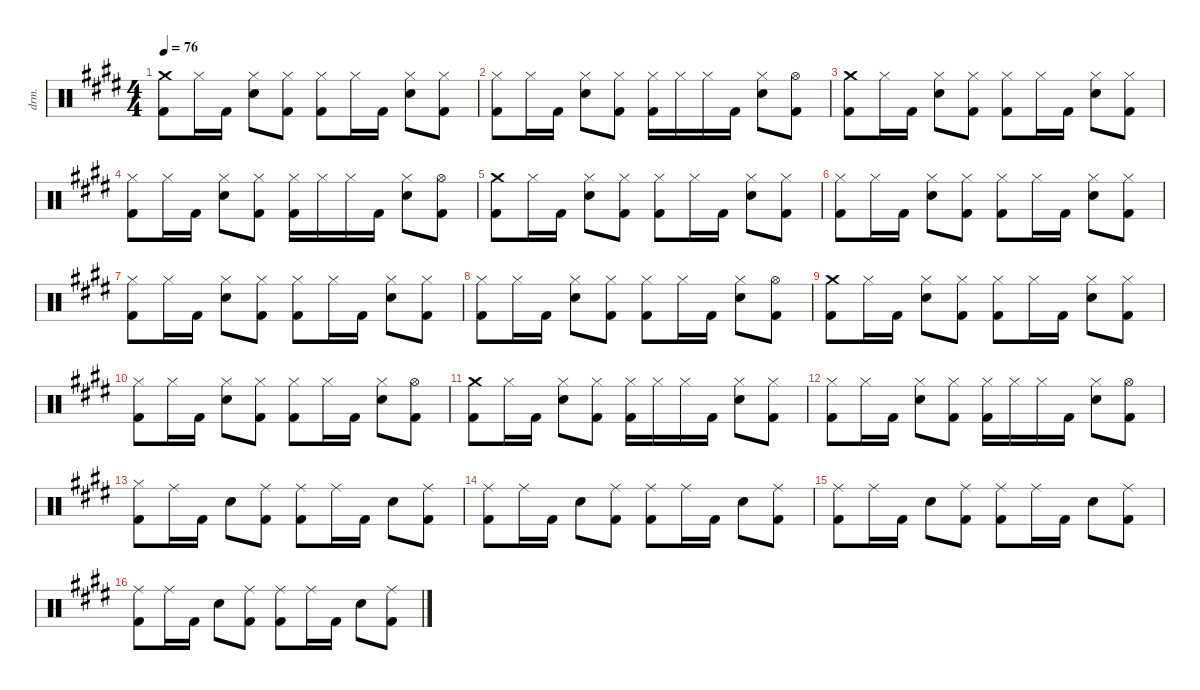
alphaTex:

\defaultSystemsLayout 4
\hideDynamics
\bracketExtendMode nobrackets
\otherSystemsTrackNameOrientation horizontal
\track ("Drums" "drm.") {instrument percussion}
\staff {score}
\articulation defaults
\ts (4 4)
\tempo 76
\clef neutral
\ks e
("Crash medium (hit)"{acc forcenatural} "Kick (hit) 2"{acc forcenatural}).8{dy f beam Down} "Hi-Hat (closed)"{acc forcenatural}.16{beam Down} "Kick (hit) 2"{acc forcenatural}.16{beam Down} ("Hi-Hat (closed)"{acc forcenatural} "Snare (hit) 2"{acc forcenatural}).8{dy mf beam Down} ("Hi-Hat (closed)"{acc forcenatural} "Kick (hit) 2"{acc forcenatural}).8{dy f beam Down} ("Hi-Hat (closed)"{acc forcenatural} "Kick (hit) 2"{acc forcenatural}).8{beam Down} "Hi-Hat (closed)"{acc forcenatural}.16{beam Down} "Kick (hit) 2"{acc forcenatural}.16{beam Down} ("Hi-Hat (closed)"{acc forcenatural} "Snare (hit) 2"{acc forcenatural}).8{dy mf beam Down} ("Hi-Hat (closed)"{acc forcenatural} "Kick (hit) 2"{acc forcenatural}).8{dy f beam Down} |
("Hi-Hat (closed)"{acc forcenatural} "Kick (hit) 2"{acc forcenatural}).8{beam Down} "Hi-Hat (closed)"{acc forcenatural}.16{beam Down} "Kick (hit) 2"{acc forcenatural}.16{beam Down} ("Hi-Hat (closed)"{acc forcenatural} "Snare (hit) 2"{acc forcenatural}).8{dy mf beam Down} ("Hi-Hat (closed)"{acc forcenatural} "Kick (hit) 2"{acc forcenatural}).8{dy f beam Down} ("Hi-Hat (closed)"{acc forcenatural} "Kick (hit) 2"{acc forcenatural}).16{beam Down} "Hi-Hat (closed)"{acc forcenatural}.16{dy mf beam Down} "Hi-Hat (closed)"{acc forcenatural}.16{dy f beam Down} "Kick (hit) 2"{acc forcenatural}.16{beam Down} ("Hi-Hat (closed)"{acc forcenatural} "Snare (hit) 2"{acc forcenatural}).8{dy mf beam Down} ("Hi-Hat (open)"{acc forcenatural} "Kick (hit) 2"{acc forcenatural}).8{dy f beam Down} |
("Crash medium (hit)"{acc forcenatural} "Kick (hit) 2"{acc forcenatural}).8{beam Down} "Hi-Hat (closed)"{acc forcenatural}.16{beam Down} "Kick (hit) 2"{acc forcenatural}.16{beam Down} ("Hi-Hat (closed)"{acc forcenatural} "Snare (hit) 2"{acc forcenatural}).8{dy mf beam Down} ("Hi-Hat (closed)"{acc forcenatural} "Kick (hit) 2"{acc forcenatural}).8{dy f beam Down} ("Hi-Hat (closed)"{acc forcenatural} "Kick (hit) 2"{acc forcenatural}).8{beam Down} "Hi-Hat (closed)"{acc forcenatural}.16{beam Down} "Kick (hit) 2"{acc forcenatural}.16{beam Down} ("Hi-Hat (closed)"{acc forcenatural} "Snare (hit) 2"{acc forcenatural}).8{dy mf beam Down} ("Hi-Hat (closed)"{acc forcenatural} "Kick (hit) 2"{acc forcenatural}).8{dy f beam Down} |
("Hi-Hat (closed)"{acc forcenatural} "Kick (hit) 2"{acc forcenatural}).8{beam Down} "Hi-Hat (closed)"{acc forcenatural}.16{beam Down} "Kick (hit) 2"{acc forcenatural}.16{beam Down} ("Hi-Hat (closed)"{acc forcenatural} "Snare (hit) 2"{acc forcenatural}).8{dy mf beam Down} ("Hi-Hat (closed)"{acc forcenatural} "Kick (hit) 2"{acc forcenatural}).8{dy f beam Down} ("Hi-Hat (closed)"{acc forcenatural} "Kick (hit) 2"{acc forcenatural}).16{beam Down} "Hi-Hat (closed)"{acc forcenatural}.16{dy mf beam Down} "Hi-Hat (closed)"{acc forcenatural}.16{dy f beam Down} "Kick (hit) 2"{acc forcenatural}.16{beam Down} ("Hi-Hat (closed)"{acc forcenatural} "Snare (hit) 2"{acc forcenatural}).8{dy mf beam Down} ("Hi-Hat (open)"{acc forcenatural} "Kick (hit) 2"{acc forcenatural}).8{dy f beam Down} |
("Crash medium (hit)"{acc forcenatural} "Kick (hit) 2"{acc forcenatural}).8{beam Down} "Hi-Hat (closed)"{acc forcenatural}.16{beam Down} "Kick (hit) 2"{acc forcenatural}.16{beam Down} ("Hi-Hat (closed)"{acc forcenatural} "Snare (hit) 2"{acc forcenatural}).8{dy mf beam Down} ("Hi-Hat (closed)"{acc forcenatural} "Kick (hit) 2"{acc forcenatural}).8{dy f beam Down} ("Hi-Hat (closed)"{acc forcenatural} "Kick (hit) 2"{acc forcenatural}).8{beam Down} "Hi-Hat (closed)"{acc forcenatural}.16{beam Down} "Kick (hit) 2"{acc forcenatural}.16{beam Down} ("Hi-Hat (closed)"{acc forcenatural} "Snare (hit) 2"{acc forcenatural}).8{dy mf beam Down} ("Hi-Hat (closed)"{acc forcenatural} "Kick (hit) 2"{acc forcenatural}).8{dy f beam Down} |
("Hi-Hat (closed)"{acc forcenatural} "Kick (hit) 2"{acc forcenatural}).8{beam Down} "Hi-Hat (closed)"{acc forcenatural}.16{beam Down} "Kick (hit) 2"{acc forcenatural}.16{beam Down} ("Hi-Hat (closed)"{acc forcenatural} "Snare (hit) 2"{acc forcenatural}).8{dy mf beam Down} ("Hi-Hat (closed)"{acc forcenatural} "Kick (hit) 2"{acc forcenatural}).8{dy f beam Down} ("Hi-Hat (closed)"{acc forcenatural} "Kick (hit) 2"{acc forcenatural}).8{beam Down} "Hi-Hat (closed)"{acc forcenatural}.16{beam Down} "Kick (hit) 2"{acc forcenatural}.16{beam Down} ("Hi-Hat (closed)"{acc forcenatural} "Snare (hit) 2"{acc forcenatural}).8{dy mf beam Down} ("Hi-Hat (closed)"{acc forcenatural} "Kick (hit) 2"{acc forcenatural}).8{dy f beam Down} |
("Hi-Hat (closed)"{acc forcenatural} "Kick (hit) 2"{acc forcenatural}).8{beam Down} "Hi-Hat (closed)"{acc forcenatural}.16{beam Down} "Kick (hit) 2"{acc forcenatural}.16{beam Down} ("Hi-Hat (closed)"{acc forcenatural} "Snare (hit) 2"{acc forcenatural}).8{dy mf beam Down} ("Hi-Hat (closed)"{acc forcenatural} "Kick (hit) 2"{acc forcenatural}).8{dy f beam Down} ("Hi-Hat (closed)"{acc forcenatural} "Kick (hit) 2"{acc forcenatural}).8{beam Down} "Hi-Hat (closed)"{acc forcenatural}.16{beam Down} "Kick (hit) 2"{acc forcenatural}.16{beam Down} ("Hi-Hat (closed)"{acc forcenatural} "Snare (hit) 2"{acc forcenatural}).8{dy mf beam Down} ("Hi-Hat (closed)"{acc forcenatural} "Kick (hit) 2"{acc forcenatural}).8{dy f beam Down} |
("Hi-Hat (closed)"{acc forcenatural} "Kick (hit) 2"{acc forcenatural}).8{beam Down} "Hi-Hat (closed)"{acc forcenatural}.16{beam Down} "Kick (hit) 2"{acc forcenatural}.16{beam Down} ("Hi-Hat (closed)"{acc forcenatural} "Snare (hit) 2"{acc forcenatural}).8{dy mf beam Down} ("Hi-Hat (closed)"{acc forcenatural} "Kick (hit) 2"{acc forcenatural}).8{dy f beam Down} ("Hi-Hat (closed)"{acc forcenatural} "Kick (hit) 2"{acc forcenatural}).8{beam Down} "Hi-Hat (closed)"{acc forcenatural}.16{beam Down} "Kick (hit) 2"{acc forcenatural}.16{beam Down} ("Hi-Hat (closed)"{acc forcenatural} "Snare (hit) 2"{acc forcenatural}).8{dy mf beam Down} ("Hi-Hat (open)"{acc forcenatural} "Kick (hit) 2"{acc forcenatural}).8{dy f beam Down} |
("Crash medium (hit)"{acc forcenatural} "Kick (hit) 2"{acc forcenatural}).8{beam Down} "Hi-Hat (closed)"{acc forcenatural}.16{beam Down} "Kick (hit) 2"{acc forcenatural}.16{beam Down} ("Hi-Hat (closed)"{acc forcenatural} "Snare (hit) 2"{acc forcenatural}).8{dy mf beam Down} ("Hi-Hat (closed)"{acc forcenatural} "Kick (hit) 2"{acc forcenatural}).8{dy f beam Down} ("Hi-Hat (closed)"{acc forcenatural} "Kick (hit) 2"{acc forcenatural}).8{beam Down} "Hi-Hat (closed)"{acc forcenatural}.16{beam Down} "Kick (hit) 2"{acc forcenatural}.16{beam Down} ("Hi-Hat (closed)"{acc forcenatural} "Snare (hit) 2"{acc forcenatural}).8{dy mf beam Down} ("Hi-Hat (closed)"{acc forcenatural} "Kick (hit) 2"{acc forcenatural}).8{dy f beam Down} |
("Hi-Hat (closed)"{acc forcenatural} "Kick (hit) 2"{acc forcenatural}).8{beam Down} "Hi-Hat (closed)"{acc forcenatural}.16{beam Down} "Kick (hit) 2"{acc forcenatural}.16{beam Down} ("Hi-Hat (closed)"{acc forcenatural} "Snare (hit) 2"{acc forcenatural}).8{dy mf beam Down} ("Hi-Hat (closed)"{acc forcenatural} "Kick (hit) 2"{acc forcenatural}).8{dy f beam Down} ("Hi-Hat (closed)"{acc forcenatural} "Kick (hit) 2"{acc forcenatural}).8{beam Down} "Hi-Hat (closed)"{acc forcenatural}.16{beam Down} "Kick (hit) 2"{acc forcenatural}.16{beam Down} ("Hi-Hat (closed)"{acc forcenatural} "Snare (hit) 2"{acc forcenatural}).8{dy mf beam Down} ("Hi-Hat (open)"{acc forcenatural} "Kick (hit) 2"{acc forcenatural}).8{dy f beam Down} |
("Crash medium (hit)"{acc forcenatural} "Kick (hit) 2"{acc forcenatural}).8{beam Down} "Hi-Hat (closed)"{acc forcenatural}.16{beam Down} "Kick (hit) 2"{acc forcenatural}.16{beam Down} ("Hi-Hat (closed)"{acc forcenatural} "Snare (hit) 2"{acc forcenatural}).8{dy mf beam Down} ("Hi-Hat (closed)"{acc forcenatural} "Kick (hit) 2"{acc forcenatural}).8{dy f beam Down} ("Hi-Hat (closed)"{acc forcenatural} "Kick (hit) 2"{acc forcenatural}).16{beam Down} "Hi-Hat (closed)"{acc forcenatural}.16{dy mf beam Down} "Hi-Hat (closed)"{acc forcenatural}.16{dy f beam Down} "Kick (hit) 2"{acc forcenatural}.16{beam Down} ("Hi-Hat (closed)"{acc forcenatural} "Snare (hit) 2"{acc forcenatural}).8{dy mf beam Down} ("Hi-Hat (closed)"{acc forcenatural} "Kick (hit) 2"{acc forcenatural}).8{dy f beam Down} |
("Hi-Hat (closed)"{acc forcenatural} "Kick (hit) 2"{acc forcenatural}).8{beam Down} "Hi-Hat (closed)"{acc forcenatural}.16{beam Down} "Kick (hit) 2"{acc forcenatural}.16{beam Down} ("Hi-Hat (closed)"{acc forcenatural} "Snare (hit) 2"{acc forcenatural}).8{dy mf beam Down} ("Hi-Hat (closed)"{acc forcenatural} "Kick (hit) 2"{acc forcenatural}).8{dy f beam Down} ("Hi-Hat (closed)"{acc forcenatural} "Kick (hit) 2"{acc forcenatural}).16{beam Down} "Hi-Hat (closed)"{acc forcenatural}.16{beam Down} "Hi-Hat (closed)"{acc forcenatural}.16{beam Down} "Kick (hit) 2"{acc forcenatural}.16{beam Down} ("Hi-Hat (closed)"{acc forcenatural} "Snare (hit) 2"{acc forcenatural}).8{dy mf beam Down} ("Hi-Hat (open)"{acc forcenatural} "Kick (hit) 2"{acc forcenatural}).8{dy f beam Down} |
("Hi-Hat (closed)"{acc forcenatural} "Kick (hit) 2"{acc forcenatural}).8{beam Down} "Ride (middle)"{acc forcenatural}.16{beam Down} "Kick (hit) 2"{acc forcenatural}.16{beam Down} "Snare (hit) 2"{acc forcenatural}.8{beam Down} ("Ride (middle)"{acc forcenatural} "Kick (hit) 2"{acc forcenatural}).8{beam Down} ("Ride (middle)"{acc forcenatural} "Kick (hit) 2"{acc forcenatural}).8{beam Down} "Ride (middle)"{acc forcenatural}.16{beam Down} "Kick (hit) 2"{acc forcenatural}.16{beam Down} "Snare (hit) 2"{acc forcenatural}.8{beam Down} ("Ride (middle)"{acc forcenatural} "Kick (hit) 2"{acc forcenatural}).8{beam Down} |
("Ride (middle)"{acc forcenatural} "Kick (hit) 2"{acc forcenatural}).8{beam Down} "Ride (middle)"{acc forcenatural}.16{beam Down} "Kick (hit) 2"{acc forcenatural}.16{beam Down} "Snare (hit) 2"{acc forcenatural}.8{beam Down} ("Ride (middle)"{acc forcenatural} "Kick (hit) 2"{acc forcenatural}).8{beam Down} ("Ride (middle)"{acc forcenatural} "Kick (hit) 2"{acc forcenatural}).8{beam Down} "Ride (middle)"{acc forcenatural}.16{beam Down} "Kick (hit) 2"{acc forcenatural}.16{beam Down} "Snare (hit) 2"{acc forcenatural}.8{beam Down} ("Ride (middle)"{acc forcenatural} "Kick (hit) 2"{acc forcenatural}).8{beam Down} |
("Ride (middle)"{acc forcenatural} "Kick (hit) 2"{acc forcenatural}).8{beam Down} "Ride (middle)"{acc forcenatural}.16{beam Down} "Kick (hit) 2"{acc forcenatural}.16{beam Down} "Snare (hit) 2"{acc forcenatural}.8{beam Down} ("Ride (middle)"{acc forcenatural} "Kick (hit) 2"{acc forcenatural}).8{beam Down} ("Ride (middle)"{acc forcenatural} "Kick (hit) 2"{acc forcenatural}).8{beam Down} "Ride (middle)"{acc forcenatural}.16{beam Down} "Kick (hit) 2"{acc forcenatural}.16{beam Down} "Snare (hit) 2"{acc forcenatural}.8{beam Down} ("Ride (middle)"{acc forcenatural} "Kick (hit) 2"{acc forcenatural}).8{beam Down} |
("Ride (middle)"{acc forcenatural} "Kick (hit) 2"{acc forcenatural}).8{beam Down} "Ride (middle)"{acc forcenatural}.16{beam Down} "Kick (hit) 2"{acc forcenatural}.16{beam Down} "Snare (hit) 2"{acc forcenatural}.8{beam Down} ("Ride (middle)"{acc forcenatural} "Kick (hit) 2"{acc forcenatural}).8{beam Down} ("Ride (middle)"{acc forcenatural} "Kick (hit) 2"{acc forcenatural}).8{beam Down} "Ride (middle)"{acc forcenatural}.16{beam Down} "Kick (hit) 2"{acc forcenatural}.16{beam Down} "Snare (hit) 2"{acc forcenatural}.8{beam Down} ("Ride (middle)"{acc forcenatural} "Kick (hit) 2"{acc forcenatural}).8{beam Down}
